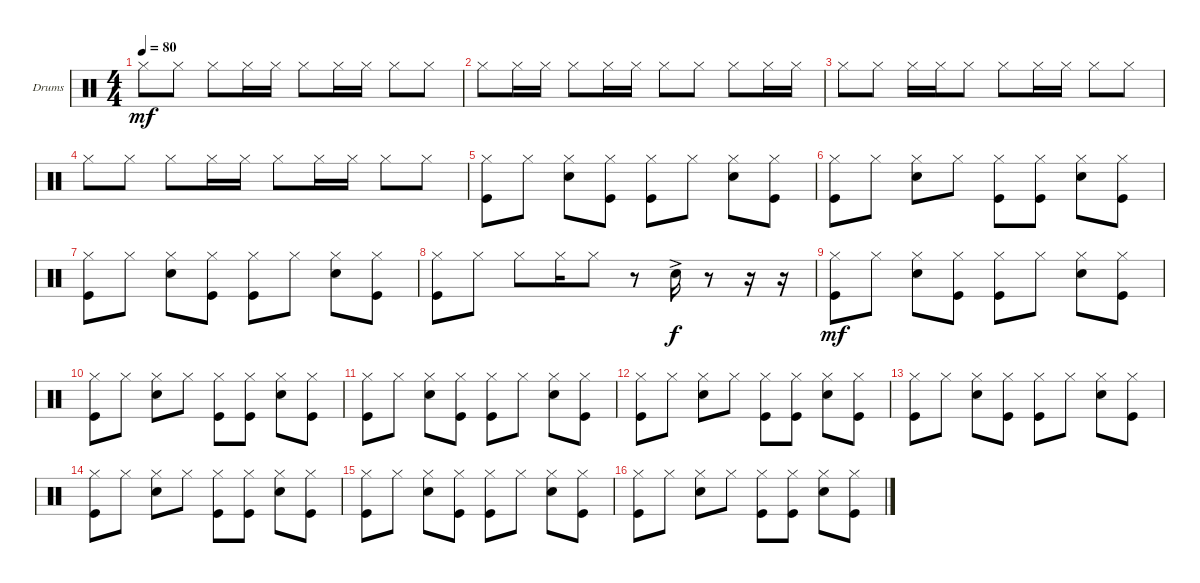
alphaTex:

\defaultSystemsLayout 4
\bracketExtendMode groupsimilarinstruments
\firstSystemTrackNameOrientation horizontal
\otherSystemsTrackNameOrientation horizontal
\track ("Drumkit" "Drums") {instrument percussion}
\staff {score}
\articulation defaults
\ts (4 4)
\tempo 80
\clef neutral
\ks c "Hi-Hat (closed)".8{dy mf} "Hi-Hat (closed)".8 "Hi-Hat (closed)".8 "Hi-Hat (closed)".16 "Hi-Hat (closed)".16 "Hi-Hat (closed)".8 "Hi-Hat (closed)".16 "Hi-Hat (closed)".16 "Hi-Hat (closed)".8 "Hi-Hat (closed)".8
|
"Hi-Hat (closed)".8 "Hi-Hat (closed)".16 "Hi-Hat (closed)".16 "Hi-Hat (closed)".8 "Hi-Hat (closed)".16 "Hi-Hat (closed)".16 "Hi-Hat (closed)".8 "Hi-Hat (closed)".8 "Hi-Hat (closed)".8 "Hi-Hat (closed)".16 "Hi-Hat (closed)".16 |
"Hi-Hat (closed)".8 "Hi-Hat (closed)".8 "Hi-Hat (closed)".16 "Hi-Hat (closed)".16 "Hi-Hat (closed)".8 "Hi-Hat (closed)".8 "Hi-Hat (closed)".16 "Hi-Hat (closed)".16 "Hi-Hat (closed)".8 "Hi-Hat (closed)".8 |
"Hi-Hat (closed)".8 "Hi-Hat (closed)".8 "Hi-Hat (closed)".8 "Hi-Hat (closed)".16 "Hi-Hat (closed)".16 "Hi-Hat (closed)".8 "Hi-Hat (closed)".16 "Hi-Hat (closed)".16 "Hi-Hat (closed)".8 "Hi-Hat (closed)".8 |
("Hi-Hat (closed)" "Kick (hit)").8 "Hi-Hat (closed)".8 ("Hi-Hat (closed)" "Snare (hit) 2").8 ("Hi-Hat (closed)" "Kick (hit)").8 ("Hi-Hat (closed)" "Kick (hit)").8 "Hi-Hat (closed)".8 ("Hi-Hat (closed)" "Snare (hit) 2").8 ("Hi-Hat (closed)" "Kick (hit)").8 |
("Hi-Hat (closed)" "Kick (hit)").8 "Hi-Hat (closed)".8 ("Hi-Hat (closed)" "Snare (hit) 2").8 "Hi-Hat (closed)".8 ("Hi-Hat (closed)" "Kick (hit)").8 ("Hi-Hat (closed)" "Kick (hit)").8 ("Hi-Hat (closed)" "Snare (hit) 2").8 ("Hi-Hat (closed)" "Kick (hit)").8 |
("Hi-Hat (closed)" "Kick (hit)").8 "Hi-Hat (closed)".8 ("Hi-Hat (closed)" "Snare (hit) 2").8 ("Hi-Hat (closed)" "Kick (hit)").8 ("Hi-Hat (closed)" "Kick (hit)").8 "Hi-Hat (closed)".8 ("Hi-Hat (closed)" "Snare (hit) 2").8 ("Hi-Hat (closed)" "Kick (hit)").8 |
("Hi-Hat (closed)" "Kick (hit)").8 "Hi-Hat (closed)".8 "Hi-Hat (closed)".8 "Hi-Hat (closed)".16 "Hi-Hat (closed)".8 r.8 "Snare (hit) 2"{ac}.16{dy f} r.8 r.16 r.16 |
("Hi-Hat (closed)" "Kick (hit)").8{dy mf} "Hi-Hat (closed)".8 ("Hi-Hat (closed)" "Snare (hit) 2").8 ("Hi-Hat (closed)" "Kick (hit)").8 ("Hi-Hat (closed)" "Kick (hit)").8 "Hi-Hat (closed)".8 ("Hi-Hat (closed)" "Snare (hit) 2").8 ("Hi-Hat (closed)" "Kick (hit)").8 |
("Hi-Hat (closed)" "Kick (hit)").8 "Hi-Hat (closed)".8 ("Hi-Hat (closed)" "Snare (hit) 2").8 "Hi-Hat (closed)".8 ("Hi-Hat (closed)" "Kick (hit)").8 ("Hi-Hat (closed)" "Kick (hit)").8 ("Hi-Hat (closed)" "Snare (hit) 2").8 ("Hi-Hat (closed)" "Kick (hit)").8 |
("Hi-Hat (closed)" "Kick (hit)").8 "Hi-Hat (closed)".8 ("Hi-Hat (closed)" "Snare (hit) 2").8 ("Hi-Hat (closed)" "Kick (hit)").8 ("Hi-Hat (closed)" "Kick (hit)").8 "Hi-Hat (closed)".8 ("Hi-Hat (closed)" "Snare (hit) 2").8 ("Hi-Hat (closed)" "Kick (hit)").8 |
("Hi-Hat (closed)" "Kick (hit)").8 "Hi-Hat (closed)".8 ("Hi-Hat (closed)" "Snare (hit) 2").8 "Hi-Hat (closed)".8 ("Hi-Hat (closed)" "Kick (hit)").8 ("Hi-Hat (closed)" "Kick (hit)").8 ("Hi-Hat (closed)" "Snare (hit) 2").8 ("Hi-Hat (closed)" "Kick (hit)").8 |
("Hi-Hat (closed)" "Kick (hit)").8 "Hi-Hat (closed)".8 ("Hi-Hat (closed)" "Snare (hit) 2").8 ("Hi-Hat (closed)" "Kick (hit)").8 ("Hi-Hat (closed)" "Kick (hit)").8 "Hi-Hat (closed)".8 ("Hi-Hat (closed)" "Snare (hit) 2").8 ("Hi-Hat (closed)" "Kick (hit)").8 |
("Hi-Hat (closed)" "Kick (hit)").8 "Hi-Hat (closed)".8 ("Hi-Hat (closed)" "Snare (hit) 2").8 "Hi-Hat (closed)".8 ("Hi-Hat (closed)" "Kick (hit)").8 ("Hi-Hat (closed)" "Kick (hit)").8 ("Hi-Hat (closed)" "Snare (hit) 2").8 ("Hi-Hat (closed)" "Kick (hit)").8 |
("Hi-Hat (closed)" "Kick (hit)").8 "Hi-Hat (closed)".8 ("Hi-Hat (closed)" "Snare (hit) 2").8 ("Hi-Hat (closed)" "Kick (hit)").8 ("Hi-Hat (closed)" "Kick (hit)").8 "Hi-Hat (closed)".8 ("Hi-Hat (closed)" "Snare (hit) 2").8 ("Hi-Hat (closed)" "Kick (hit)").8 |
("Hi-Hat (closed)" "Kick (hit)").8 "Hi-Hat (closed)".8 ("Hi-Hat (closed)" "Snare (hit) 2").8 "Hi-Hat (closed)".8 ("Hi-Hat (closed)" "Kick (hit)").8 ("Hi-Hat (closed)" "Kick (hit)").8 ("Hi-Hat (closed)" "Snare (hit) 2").8 ("Hi-Hat (closed)" "Kick (hit)").8
